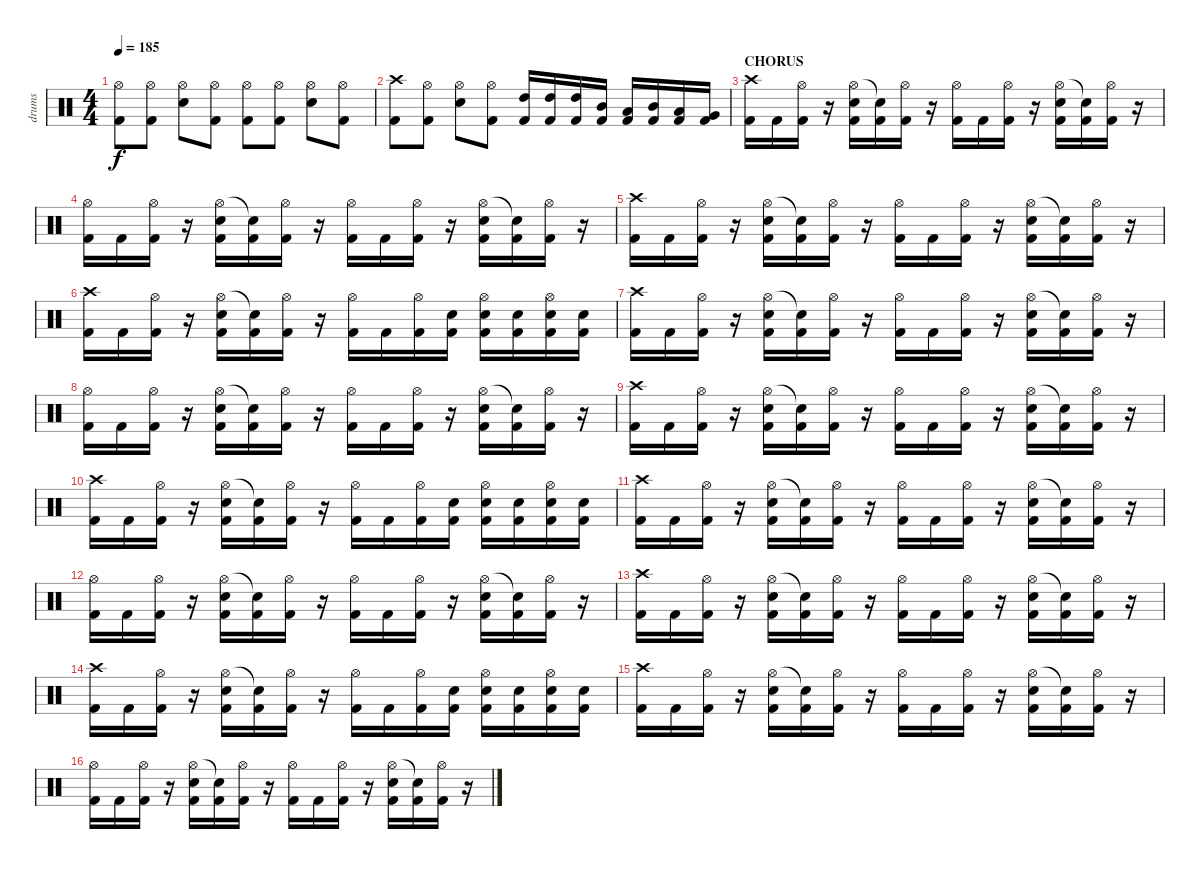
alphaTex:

\track ("drums" "drums") {instrument percussion}
\staff {score}
\articulation defaults
\ts (4 4)
\tempo 185
\clef neutral
\ks c
("Hi-Hat (open)" "Kick (hit) 2").8{dy f} ("Hi-Hat (open)" "Kick (hit) 2").8 ("Hi-Hat (open)" "Electric Snare (hit)").8 ("Hi-Hat (open)" "Kick (hit) 2").8 ("Hi-Hat (open)" "Kick (hit) 2").8 ("Hi-Hat (open)" "Kick (hit) 2").8 ("Hi-Hat (open)" "Electric Snare (hit)").8 ("Hi-Hat (open)" "Kick (hit) 2").8 |
("Crash high (hit)" "Kick (hit) 2").8 ("Hi-Hat (open)" "Kick (hit) 2").8 ("Hi-Hat (open)" "Electric Snare (hit)").8 ("Hi-Hat (open)" "Kick (hit) 2").8 ("High Tom (hit)" "Kick (hit) 2").16 ("High Tom (hit)" "Kick (hit) 2").16 ("High Tom (hit)" "Kick (hit) 2").16 ("Mid Tom (hit)" "Kick (hit) 2").16 ("Low Tom (hit)" "Kick (hit) 2").16 ("Mid Tom (hit)" "Kick (hit) 2").16 ("Low Tom (hit)" "Kick (hit) 2").16 ("Very Low Tom (hit)" "Kick (hit) 2").16 |
\section ("" "CHORUS")
("Crash high (hit)" "Kick (hit) 2").16 "Kick (hit) 2".16 ("Hi-Hat (open)" "Kick (hit) 2").16 r.16 ("Hi-Hat (open)" "Electric Snare (hit)" "Kick (hit) 2").16 ("Snare (hit)"{t} "Kick (hit) 2").16 ("Hi-Hat (open)" "Kick (hit) 2").16 r.16 ("Hi-Hat (open)" "Kick (hit) 2").16 "Kick (hit) 2".16 ("Hi-Hat (open)" "Kick (hit) 2").16 r.16 ("Hi-Hat (open)" "Electric Snare (hit)" "Kick (hit) 2").16 ("Snare (hit)"{t} "Kick (hit) 2").16 ("Hi-Hat (open)" "Kick (hit) 2").16 r.16 |
("Hi-Hat (open)" "Kick (hit) 2").16 "Kick (hit) 2".16 ("Hi-Hat (open)" "Kick (hit) 2").16 r.16 ("Hi-Hat (open)" "Electric Snare (hit)" "Kick (hit) 2").16 ("Snare (hit)"{t} "Kick (hit) 2").16 ("Hi-Hat (open)" "Kick (hit) 2").16 r.16 ("Hi-Hat (open)" "Kick (hit) 2").16 "Kick (hit) 2".16 ("Hi-Hat (open)" "Kick (hit) 2").16 r.16 ("Hi-Hat (open)" "Electric Snare (hit)" "Kick (hit) 2").16 ("Snare (hit)"{t} "Kick (hit) 2").16 ("Hi-Hat (open)" "Kick (hit) 2").16 r.16 |
("Crash high (hit)" "Kick (hit) 2").16 "Kick (hit) 2".16 ("Hi-Hat (open)" "Kick (hit) 2").16 r.16 ("Hi-Hat (open)" "Electric Snare (hit)" "Kick (hit) 2").16 ("Snare (hit)"{t} "Kick (hit) 2").16 ("Hi-Hat (open)" "Kick (hit) 2").16 r.16 ("Hi-Hat (open)" "Kick (hit) 2").16 "Kick (hit) 2".16 ("Hi-Hat (open)" "Kick (hit) 2").16 r.16 ("Hi-Hat (open)" "Electric Snare (hit)" "Kick (hit) 2").16 ("Snare (hit)"{t} "Kick (hit) 2").16 ("Hi-Hat (open)" "Kick (hit) 2").16 r.16 |
("Crash high (hit)" "Kick (hit) 2").16 "Kick (hit) 2".16 ("Hi-Hat (open)" "Kick (hit) 2").16 r.16 ("Hi-Hat (open)" "Electric Snare (hit)" "Kick (hit) 2").16 ("Snare (hit)"{t} "Kick (hit) 2").16 ("Hi-Hat (open)" "Kick (hit) 2").16 r.16 ("Hi-Hat (open)" "Kick (hit) 2").16 "Kick (hit) 2".16 ("Hi-Hat (open)" "Kick (hit) 2").16 ("Electric Snare (hit)" "Kick (hit) 2").16 ("Hi-Hat (open)" "Electric Snare (hit)" "Kick (hit) 2").16 ("Electric Snare (hit)" "Kick (hit) 2").16 ("Hi-Hat (open)" "Electric Snare (hit)" "Kick (hit) 2").16 ("Electric Snare (hit)" "Kick (hit) 2").16 |
("Crash high (hit)" "Kick (hit) 2").16 "Kick (hit) 2".16 ("Hi-Hat (open)" "Kick (hit) 2").16 r.16 ("Hi-Hat (open)" "Electric Snare (hit)" "Kick (hit) 2").16 ("Snare (hit)"{t} "Kick (hit) 2").16 ("Hi-Hat (open)" "Kick (hit) 2").16 r.16 ("Hi-Hat (open)" "Kick (hit) 2").16 "Kick (hit) 2".16 ("Hi-Hat (open)" "Kick (hit) 2").16 r.16 ("Hi-Hat (open)" "Electric Snare (hit)" "Kick (hit) 2").16 ("Snare (hit)"{t} "Kick (hit) 2").16 ("Hi-Hat (open)" "Kick (hit) 2").16 r.16 |
("Hi-Hat (open)" "Kick (hit) 2").16 "Kick (hit) 2".16 ("Hi-Hat (open)" "Kick (hit) 2").16 r.16 ("Hi-Hat (open)" "Electric Snare (hit)" "Kick (hit) 2").16 ("Snare (hit)"{t} "Kick (hit) 2").16 ("Hi-Hat (open)" "Kick (hit) 2").16 r.16 ("Hi-Hat (open)" "Kick (hit) 2").16 "Kick (hit) 2".16 ("Hi-Hat (open)" "Kick (hit) 2").16 r.16 ("Hi-Hat (open)" "Electric Snare (hit)" "Kick (hit) 2").16 ("Snare (hit)"{t} "Kick (hit) 2").16 ("Hi-Hat (open)" "Kick (hit) 2").16 r.16 |
("Crash high (hit)" "Kick (hit) 2").16 "Kick (hit) 2".16 ("Hi-Hat (open)" "Kick (hit) 2").16 r.16 ("Hi-Hat (open)" "Electric Snare (hit)" "Kick (hit) 2").16 ("Snare (hit)"{t} "Kick (hit) 2").16 ("Hi-Hat (open)" "Kick (hit) 2").16 r.16 ("Hi-Hat (open)" "Kick (hit) 2").16 "Kick (hit) 2".16 ("Hi-Hat (open)" "Kick (hit) 2").16 r.16 ("Hi-Hat (open)" "Electric Snare (hit)" "Kick (hit) 2").16 ("Snare (hit)"{t} "Kick (hit) 2").16 ("Hi-Hat (open)" "Kick (hit) 2").16 r.16 |
("Crash high (hit)" "Kick (hit) 2").16 "Kick (hit) 2".16 ("Hi-Hat (open)" "Kick (hit) 2").16 r.16 ("Hi-Hat (open)" "Electric Snare (hit)" "Kick (hit) 2").16 ("Snare (hit)"{t} "Kick (hit) 2").16 ("Hi-Hat (open)" "Kick (hit) 2").16 r.16 ("Hi-Hat (open)" "Kick (hit) 2").16 "Kick (hit) 2".16 ("Hi-Hat (open)" "Kick (hit) 2").16 ("Electric Snare (hit)" "Kick (hit) 2").16 ("Hi-Hat (open)" "Electric Snare (hit)" "Kick (hit) 2").16 ("Electric Snare (hit)" "Kick (hit) 2").16 ("Hi-Hat (open)" "Electric Snare (hit)" "Kick (hit) 2").16 ("Electric Snare (hit)" "Kick (hit) 2").16 |
("Crash high (hit)" "Kick (hit) 2").16 "Kick (hit) 2".16 ("Hi-Hat (open)" "Kick (hit) 2").16 r.16 ("Hi-Hat (open)" "Electric Snare (hit)" "Kick (hit) 2").16 ("Snare (hit)"{t} "Kick (hit) 2").16 ("Hi-Hat (open)" "Kick (hit) 2").16 r.16 ("Hi-Hat (open)" "Kick (hit) 2").16 "Kick (hit) 2".16 ("Hi-Hat (open)" "Kick (hit) 2").16 r.16 ("Hi-Hat (open)" "Electric Snare (hit)" "Kick (hit) 2").16 ("Snare (hit)"{t} "Kick (hit) 2").16 ("Hi-Hat (open)" "Kick (hit) 2").16 r.16 |
("Hi-Hat (open)" "Kick (hit) 2").16 "Kick (hit) 2".16 ("Hi-Hat (open)" "Kick (hit) 2").16 r.16 ("Hi-Hat (open)" "Electric Snare (hit)" "Kick (hit) 2").16 ("Snare (hit)"{t} "Kick (hit) 2").16 ("Hi-Hat (open)" "Kick (hit) 2").16 r.16 ("Hi-Hat (open)" "Kick (hit) 2").16 "Kick (hit) 2".16 ("Hi-Hat (open)" "Kick (hit) 2").16 r.16 ("Hi-Hat (open)" "Electric Snare (hit)" "Kick (hit) 2").16 ("Snare (hit)"{t} "Kick (hit) 2").16 ("Hi-Hat (open)" "Kick (hit) 2").16 r.16 |
("Crash high (hit)" "Kick (hit) 2").16 "Kick (hit) 2".16 ("Hi-Hat (open)" "Kick (hit) 2").16 r.16 ("Hi-Hat (open)" "Electric Snare (hit)" "Kick (hit) 2").16 ("Snare (hit)"{t} "Kick (hit) 2").16 ("Hi-Hat (open)" "Kick (hit) 2").16 r.16 ("Hi-Hat (open)" "Kick (hit) 2").16 "Kick (hit) 2".16 ("Hi-Hat (open)" "Kick (hit) 2").16 r.16 ("Hi-Hat (open)" "Electric Snare (hit)" "Kick (hit) 2").16 ("Snare (hit)"{t} "Kick (hit) 2").16 ("Hi-Hat (open)" "Kick (hit) 2").16 r.16 |
("Crash high (hit)" "Kick (hit) 2").16 "Kick (hit) 2".16 ("Hi-Hat (open)" "Kick (hit) 2").16 r.16 ("Hi-Hat (open)" "Electric Snare (hit)" "Kick (hit) 2").16 ("Snare (hit)"{t} "Kick (hit) 2").16 ("Hi-Hat (open)" "Kick (hit) 2").16 r.16 ("Hi-Hat (open)" "Kick (hit) 2").16 "Kick (hit) 2".16 ("Hi-Hat (open)" "Kick (hit) 2").16 ("Electric Snare (hit)" "Kick (hit) 2").16 ("Hi-Hat (open)" "Electric Snare (hit)" "Kick (hit) 2").16 ("Electric Snare (hit)" "Kick (hit) 2").16 ("Hi-Hat (open)" "Electric Snare (hit)" "Kick (hit) 2").16 ("Electric Snare (hit)" "Kick (hit) 2").16 |
("Crash high (hit)" "Kick (hit) 2").16 "Kick (hit) 2".16 ("Hi-Hat (open)" "Kick (hit) 2").16 r.16 ("Hi-Hat (open)" "Electric Snare (hit)" "Kick (hit) 2").16 ("Snare (hit)"{t} "Kick (hit) 2").16 ("Hi-Hat (open)" "Kick (hit) 2").16 r.16 ("Hi-Hat (open)" "Kick (hit) 2").16 "Kick (hit) 2".16 ("Hi-Hat (open)" "Kick (hit) 2").16 r.16 ("Hi-Hat (open)" "Electric Snare (hit)" "Kick (hit) 2").16 ("Snare (hit)"{t} "Kick (hit) 2").16 ("Hi-Hat (open)" "Kick (hit) 2").16 r.16 |
("Hi-Hat (open)" "Kick (hit) 2").16 "Kick (hit) 2".16 ("Hi-Hat (open)" "Kick (hit) 2").16 r.16 ("Hi-Hat (open)" "Electric Snare (hit)" "Kick (hit) 2").16 ("Snare (hit)"{t} "Kick (hit) 2").16 ("Hi-Hat (open)" "Kick (hit) 2").16 r.16 ("Hi-Hat (open)" "Kick (hit) 2").16 "Kick (hit) 2".16 ("Hi-Hat (open)" "Kick (hit) 2").16 r.16 ("Hi-Hat (open)" "Electric Snare (hit)" "Kick (hit) 2").16 ("Snare (hit)"{t} "Kick (hit) 2").16 ("Hi-Hat (open)" "Kick (hit) 2").16 r.16
